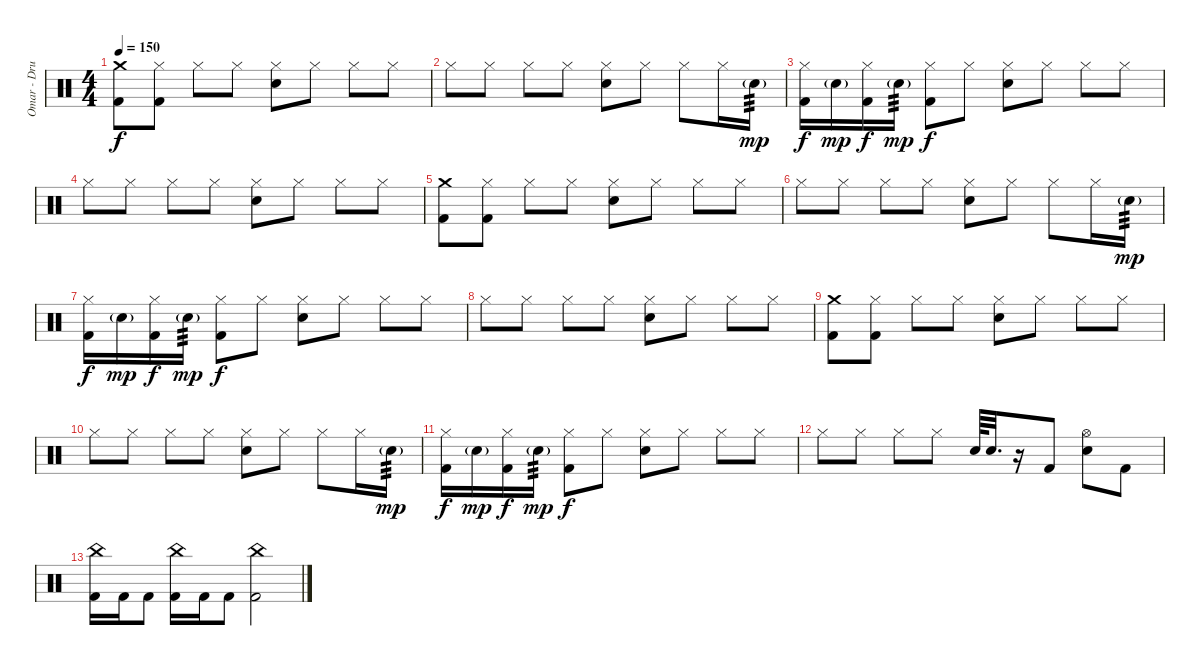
\track ("Omar - Drums" "Omar - Dru") {instrument percussion}
\staff {score}
\articulation defaults
\ts (4 4)
\tempo 150
\clef neutral
\ks c
("Crash medium (hit)" "Kick (hit) 2").8{dy f} ("Hi-Hat (closed)" "Kick (hit) 2").8 "Hi-Hat (closed)".8 "Hi-Hat (closed)".8 ("Hi-Hat (closed)" "Electric Snare (hit)").8 "Hi-Hat (closed)".8 "Hi-Hat (closed)".8 "Hi-Hat (closed)".8 |
"Hi-Hat (closed)".8 "Hi-Hat (closed)".8 "Hi-Hat (closed)".8 "Hi-Hat (closed)".8 ("Hi-Hat (closed)" "Electric Snare (hit)").8 "Hi-Hat (closed)".8 "Hi-Hat (closed)".8 "Hi-Hat (closed)".16 "Electric Snare (hit)"{g}.16{tp 3 dy mp} |
("Hi-Hat (closed)" "Kick (hit) 2").16{dy f} "Electric Snare (hit)"{g}.16{dy mp} ("Hi-Hat (closed)" "Kick (hit) 2").16{dy f} "Electric Snare (hit)"{g}.16{tp 3 dy mp} ("Hi-Hat (closed)" "Kick (hit) 2").8{dy f} "Hi-Hat (closed)".8 ("Hi-Hat (closed)" "Electric Snare (hit)").8 "Hi-Hat (closed)".8 "Hi-Hat (closed)".8 "Hi-Hat (closed)".8 |
"Hi-Hat (closed)".8 "Hi-Hat (closed)".8 "Hi-Hat (closed)".8 "Hi-Hat (closed)".8 ("Hi-Hat (closed)" "Electric Snare (hit)").8 "Hi-Hat (closed)".8 "Hi-Hat (closed)".8 "Hi-Hat (closed)".8 |
("Crash medium (hit)" "Kick (hit) 2").8 ("Hi-Hat (closed)" "Kick (hit) 2").8 "Hi-Hat (closed)".8 "Hi-Hat (closed)".8 ("Hi-Hat (closed)" "Electric Snare (hit)").8 "Hi-Hat (closed)".8 "Hi-Hat (closed)".8 "Hi-Hat (closed)".8 |
"Hi-Hat (closed)".8 "Hi-Hat (closed)".8 "Hi-Hat (closed)".8 "Hi-Hat (closed)".8 ("Hi-Hat (closed)" "Electric Snare (hit)").8 "Hi-Hat (closed)".8 "Hi-Hat (closed)".8 "Hi-Hat (closed)".16 "Electric Snare (hit)"{g}.16{tp 3 dy mp} |
("Hi-Hat (closed)" "Kick (hit) 2").16{dy f} "Electric Snare (hit)"{g}.16{dy mp} ("Hi-Hat (closed)" "Kick (hit) 2").16{dy f} "Electric Snare (hit)"{g}.16{tp 3 dy mp} ("Hi-Hat (closed)" "Kick (hit) 2").8{dy f} "Hi-Hat (closed)".8 ("Hi-Hat (closed)" "Electric Snare (hit)").8 "Hi-Hat (closed)".8 "Hi-Hat (closed)".8 "Hi-Hat (closed)".8 |
"Hi-Hat (closed)".8 "Hi-Hat (closed)".8 "Hi-Hat (closed)".8 "Hi-Hat (closed)".8 ("Hi-Hat (closed)" "Electric Snare (hit)").8 "Hi-Hat (closed)".8 "Hi-Hat (closed)".8 "Hi-Hat (closed)".8 |
("Crash medium (hit)" "Kick (hit) 2").8 ("Hi-Hat (closed)" "Kick (hit) 2").8 "Hi-Hat (closed)".8 "Hi-Hat (closed)".8 ("Hi-Hat (closed)" "Electric Snare (hit)").8 "Hi-Hat (closed)".8 "Hi-Hat (closed)".8 "Hi-Hat (closed)".8 |
"Hi-Hat (closed)".8 "Hi-Hat (closed)".8 "Hi-Hat (closed)".8 "Hi-Hat (closed)".8 ("Hi-Hat (closed)" "Electric Snare (hit)").8 "Hi-Hat (closed)".8 "Hi-Hat (closed)".8 "Hi-Hat (closed)".16 "Electric Snare (hit)"{g}.16{tp 3 dy mp} |
("Hi-Hat (closed)" "Kick (hit) 2").16{dy f} "Electric Snare (hit)"{g}.16{dy mp} ("Hi-Hat (closed)" "Kick (hit) 2").16{dy f} "Electric Snare (hit)"{g}.16{tp 3 dy mp} ("Hi-Hat (closed)" "Kick (hit) 2").8{dy f} "Hi-Hat (closed)".8 ("Hi-Hat (closed)" "Electric Snare (hit)").8 "Hi-Hat (closed)".8 "Hi-Hat (closed)".8 "Hi-Hat (closed)".8 |
"Hi-Hat (closed)".8 "Hi-Hat (closed)".8 "Hi-Hat (closed)".8 "Hi-Hat (closed)".8 "Electric Snare (hit)".64 "Electric Snare (hit)".32{d} r.16 "Kick (hit) 2".8 ("Hi-Hat (open)" "Electric Snare (hit)").8 "Kick (hit) 2".8 |
("China (hit)" "Kick (hit) 2").16 "Kick (hit) 2".16 "Kick (hit) 2".8 ("China (hit)" "Kick (hit) 2").16 "Kick (hit) 2".16 "Kick (hit) 2".8 ("China (hit)" "Kick (hit) 2").2
